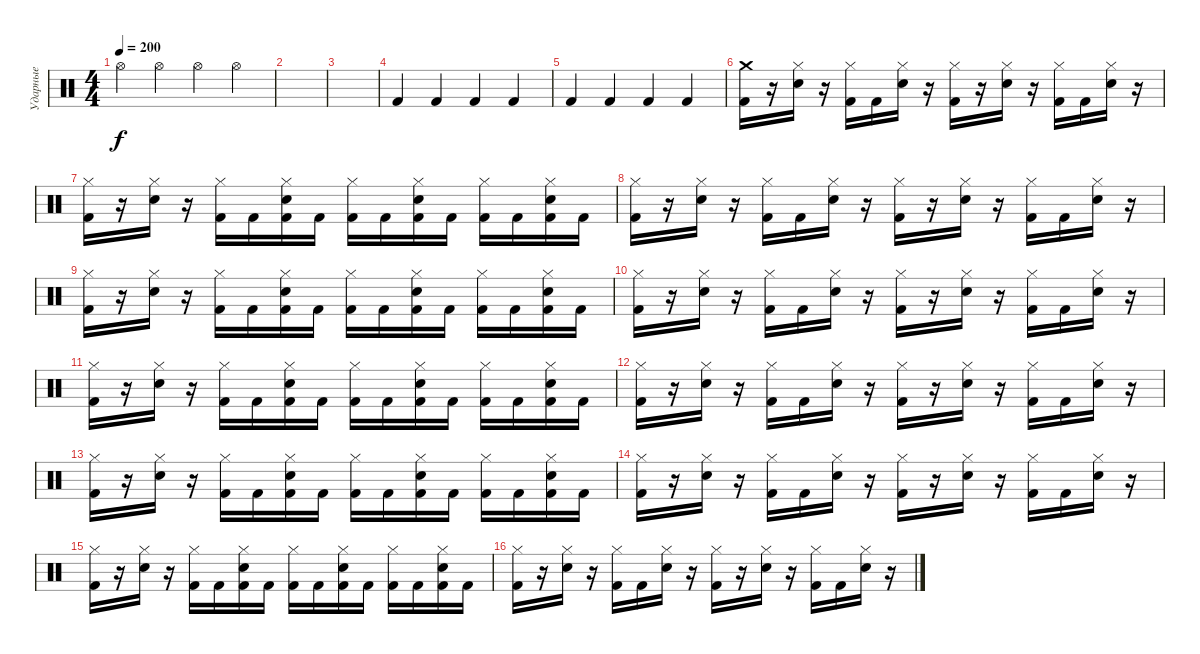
\track ("Ударные" "Ударные") {instrument percussion}
\staff {score}
\articulation defaults
\ts (4 4)
\tempo 200
\clef neutral
\ks c "Hi-Hat (open)".4{dy f} "Hi-Hat (open)".4 "Hi-Hat (open)".4 "Hi-Hat (open)".4
|
|
|
"Kick (hit) 2".4 "Kick (hit) 2".4 "Kick (hit) 2".4 "Kick (hit) 2".4 |
"Kick (hit) 2".4 "Kick (hit) 2".4 "Kick (hit) 2".4 "Kick (hit) 2".4 |
("Crash medium (hit)" "Kick (hit) 2").16 r.16 ("Hi-Hat (closed)" "Electric Snare (hit)").16 r.16 ("Hi-Hat (closed)" "Kick (hit) 2").16 "Kick (hit) 2".16 ("Hi-Hat (closed)" "Electric Snare (hit)").16 r.16 ("Hi-Hat (closed)" "Kick (hit) 2").16 r.16 ("Hi-Hat (closed)" "Electric Snare (hit)").16 r.16 ("Hi-Hat (closed)" "Kick (hit) 2").16 "Kick (hit) 2".16 ("Hi-Hat (closed)" "Electric Snare (hit)").16 r.16 |
("Hi-Hat (closed)" "Kick (hit) 2").16 r.16 ("Hi-Hat (closed)" "Electric Snare (hit)").16 r.16 ("Hi-Hat (closed)" "Kick (hit) 2").16 "Kick (hit) 2".16 ("Hi-Hat (closed)" "Kick (hit) 2" "Electric Snare (hit)").16 "Kick (hit) 2".16 ("Hi-Hat (closed)" "Kick (hit) 2").16 "Kick (hit) 2".16 ("Hi-Hat (closed)" "Kick (hit) 2" "Electric Snare (hit)").16 "Kick (hit) 2".16 ("Hi-Hat (closed)" "Kick (hit) 2").16 "Kick (hit) 2".16 ("Hi-Hat (closed)" "Kick (hit) 2" "Electric Snare (hit)").16 "Kick (hit) 2".16 |
("Hi-Hat (closed)" "Kick (hit) 2").16 r.16 ("Hi-Hat (closed)" "Electric Snare (hit)").16 r.16 ("Hi-Hat (closed)" "Kick (hit) 2").16 "Kick (hit) 2".16 ("Hi-Hat (closed)" "Electric Snare (hit)").16 r.16 ("Hi-Hat (closed)" "Kick (hit) 2").16 r.16 ("Hi-Hat (closed)" "Electric Snare (hit)").16 r.16 ("Hi-Hat (closed)" "Kick (hit) 2").16 "Kick (hit) 2".16 ("Hi-Hat (closed)" "Electric Snare (hit)").16 r.16 |
("Hi-Hat (closed)" "Kick (hit) 2").16 r.16 ("Hi-Hat (closed)" "Electric Snare (hit)").16 r.16 ("Hi-Hat (closed)" "Kick (hit) 2").16 "Kick (hit) 2".16 ("Hi-Hat (closed)" "Kick (hit) 2" "Electric Snare (hit)").16 "Kick (hit) 2".16 ("Hi-Hat (closed)" "Kick (hit) 2").16 "Kick (hit) 2".16 ("Hi-Hat (closed)" "Kick (hit) 2" "Electric Snare (hit)").16 "Kick (hit) 2".16 ("Hi-Hat (closed)" "Kick (hit) 2").16 "Kick (hit) 2".16 ("Hi-Hat (closed)" "Kick (hit) 2" "Electric Snare (hit)").16 "Kick (hit) 2".16 |
("Hi-Hat (closed)" "Kick (hit) 2").16 r.16 ("Hi-Hat (closed)" "Electric Snare (hit)").16 r.16 ("Hi-Hat (closed)" "Kick (hit) 2").16 "Kick (hit) 2".16 ("Hi-Hat (closed)" "Electric Snare (hit)").16 r.16 ("Hi-Hat (closed)" "Kick (hit) 2").16 r.16 ("Hi-Hat (closed)" "Electric Snare (hit)").16 r.16 ("Hi-Hat (closed)" "Kick (hit) 2").16 "Kick (hit) 2".16 ("Hi-Hat (closed)" "Electric Snare (hit)").16 r.16 |
("Hi-Hat (closed)" "Kick (hit) 2").16 r.16 ("Hi-Hat (closed)" "Electric Snare (hit)").16 r.16 ("Hi-Hat (closed)" "Kick (hit) 2").16 "Kick (hit) 2".16 ("Hi-Hat (closed)" "Kick (hit) 2" "Electric Snare (hit)").16 "Kick (hit) 2".16 ("Hi-Hat (closed)" "Kick (hit) 2").16 "Kick (hit) 2".16 ("Hi-Hat (closed)" "Kick (hit) 2" "Electric Snare (hit)").16 "Kick (hit) 2".16 ("Hi-Hat (closed)" "Kick (hit) 2").16 "Kick (hit) 2".16 ("Hi-Hat (closed)" "Kick (hit) 2" "Electric Snare (hit)").16 "Kick (hit) 2".16 |
("Hi-Hat (closed)" "Kick (hit) 2").16 r.16 ("Hi-Hat (closed)" "Electric Snare (hit)").16 r.16 ("Hi-Hat (closed)" "Kick (hit) 2").16 "Kick (hit) 2".16 ("Hi-Hat (closed)" "Electric Snare (hit)").16 r.16 ("Hi-Hat (closed)" "Kick (hit) 2").16 r.16 ("Hi-Hat (closed)" "Electric Snare (hit)").16 r.16 ("Hi-Hat (closed)" "Kick (hit) 2").16 "Kick (hit) 2".16 ("Hi-Hat (closed)" "Electric Snare (hit)").16 r.16 |
("Hi-Hat (closed)" "Kick (hit) 2").16 r.16 ("Hi-Hat (closed)" "Electric Snare (hit)").16 r.16 ("Hi-Hat (closed)" "Kick (hit) 2").16 "Kick (hit) 2".16 ("Hi-Hat (closed)" "Kick (hit) 2" "Electric Snare (hit)").16 "Kick (hit) 2".16 ("Hi-Hat (closed)" "Kick (hit) 2").16 "Kick (hit) 2".16 ("Hi-Hat (closed)" "Kick (hit) 2" "Electric Snare (hit)").16 "Kick (hit) 2".16 ("Hi-Hat (closed)" "Kick (hit) 2").16 "Kick (hit) 2".16 ("Hi-Hat (closed)" "Kick (hit) 2" "Electric Snare (hit)").16 "Kick (hit) 2".16 |
("Hi-Hat (closed)" "Kick (hit) 2").16 r.16 ("Hi-Hat (closed)" "Electric Snare (hit)").16 r.16 ("Hi-Hat (closed)" "Kick (hit) 2").16 "Kick (hit) 2".16 ("Hi-Hat (closed)" "Electric Snare (hit)").16 r.16 ("Hi-Hat (closed)" "Kick (hit) 2").16 r.16 ("Hi-Hat (closed)" "Electric Snare (hit)").16 r.16 ("Hi-Hat (closed)" "Kick (hit) 2").16 "Kick (hit) 2".16 ("Hi-Hat (closed)" "Electric Snare (hit)").16 r.16 |
("Hi-Hat (closed)" "Kick (hit) 2").16 r.16 ("Hi-Hat (closed)" "Electric Snare (hit)").16 r.16 ("Hi-Hat (closed)" "Kick (hit) 2").16 "Kick (hit) 2".16 ("Hi-Hat (closed)" "Kick (hit) 2" "Electric Snare (hit)").16 "Kick (hit) 2".16 ("Hi-Hat (closed)" "Kick (hit) 2").16 "Kick (hit) 2".16 ("Hi-Hat (closed)" "Kick (hit) 2" "Electric Snare (hit)").16 "Kick (hit) 2".16 ("Hi-Hat (closed)" "Kick (hit) 2").16 "Kick (hit) 2".16 ("Hi-Hat (closed)" "Kick (hit) 2" "Electric Snare (hit)").16 "Kick (hit) 2".16 |
("Hi-Hat (closed)" "Kick (hit) 2").16 r.16 ("Hi-Hat (closed)" "Electric Snare (hit)").16 r.16 ("Hi-Hat (closed)" "Kick (hit) 2").16 "Kick (hit) 2".16 ("Hi-Hat (closed)" "Electric Snare (hit)").16 r.16 ("Hi-Hat (closed)" "Kick (hit) 2").16 r.16 ("Hi-Hat (closed)" "Electric Snare (hit)").16 r.16 ("Hi-Hat (closed)" "Kick (hit) 2").16 "Kick (hit) 2".16 ("Hi-Hat (closed)" "Electric Snare (hit)").16 r.16
